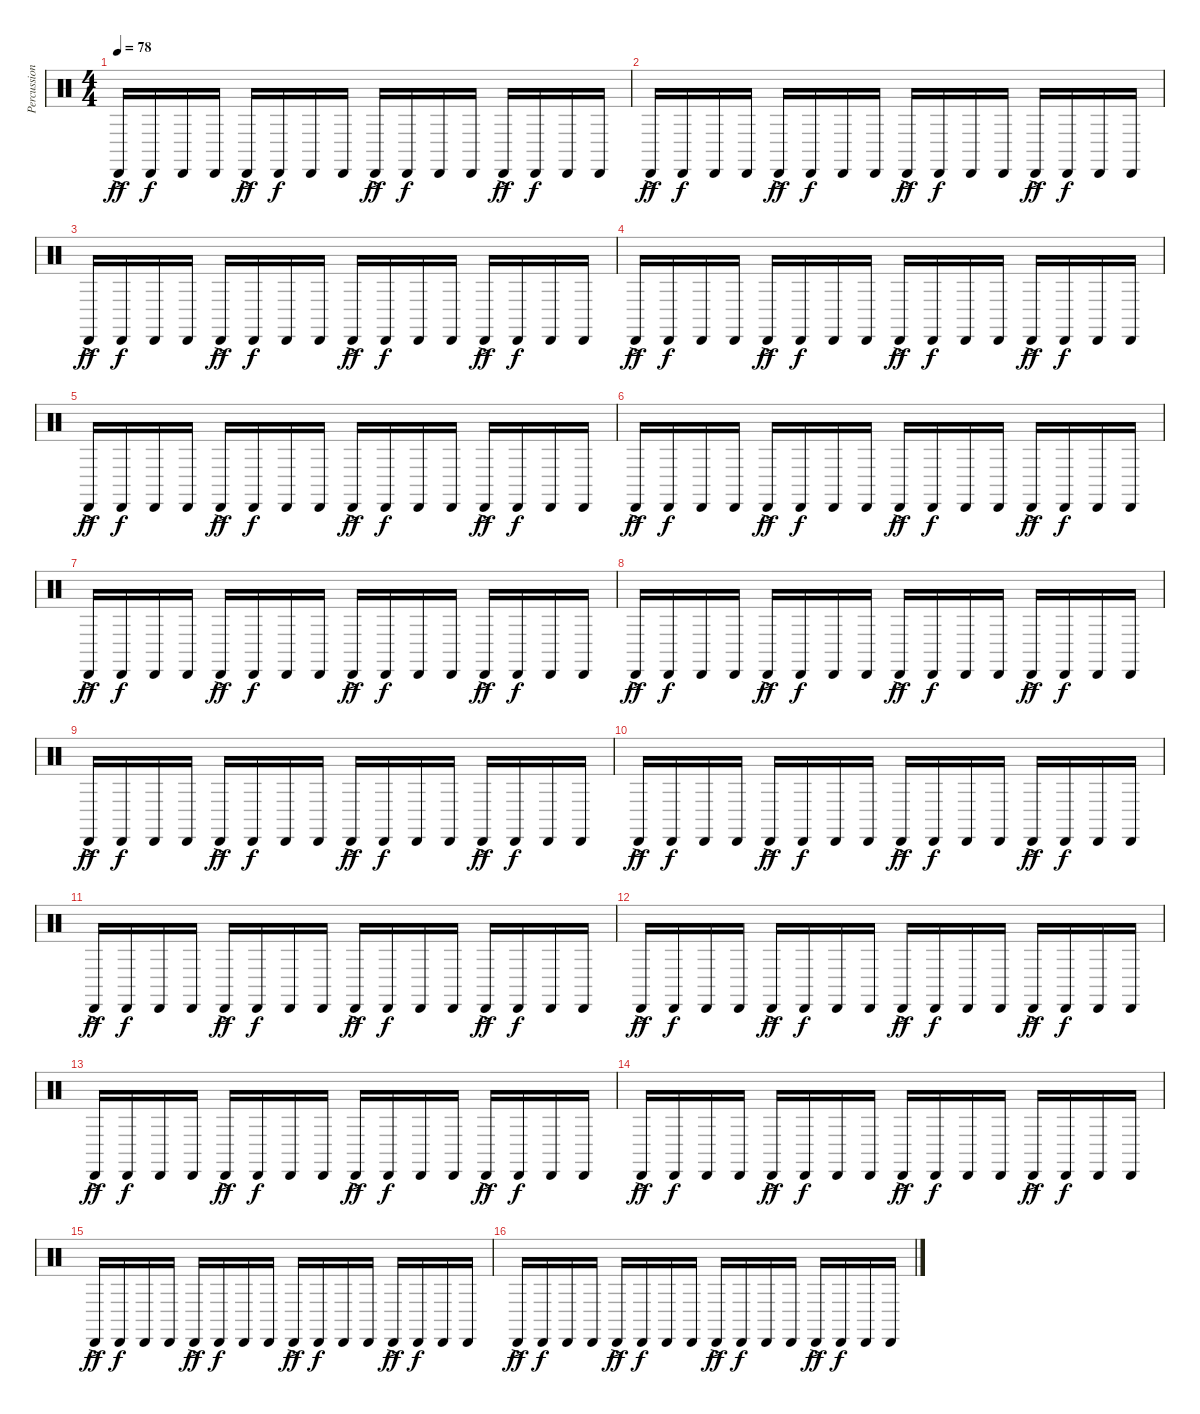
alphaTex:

\track ("Percussion" "Percussion") {instrument percussion}
\staff {score}
\articulation defaults
\ts (4 4)
\tempo 78
\clef neutral
\ks c "Cabasa (hit)"{ac}.16{dy ff} "Cabasa (hit)".16{dy f} "Cabasa (hit)".16 "Cabasa (hit)".16 "Cabasa (hit)"{ac}.16{dy ff} "Cabasa (hit)".16{dy f} "Cabasa (hit)".16 "Cabasa (hit)".16 "Cabasa (hit)"{ac}.16{dy ff} "Cabasa (hit)".16{dy f} "Cabasa (hit)".16 "Cabasa (hit)".16 "Cabasa (hit)"{ac}.16{dy ff} "Cabasa (hit)".16{dy f} "Cabasa (hit)".16 "Cabasa (hit)".16
|
"Cabasa (hit)"{ac}.16{dy ff} "Cabasa (hit)".16{dy f} "Cabasa (hit)".16 "Cabasa (hit)".16 "Cabasa (hit)"{ac}.16{dy ff} "Cabasa (hit)".16{dy f} "Cabasa (hit)".16 "Cabasa (hit)".16 "Cabasa (hit)"{ac}.16{dy ff} "Cabasa (hit)".16{dy f} "Cabasa (hit)".16 "Cabasa (hit)".16 "Cabasa (hit)"{ac}.16{dy ff} "Cabasa (hit)".16{dy f} "Cabasa (hit)".16 "Cabasa (hit)".16 |
"Cabasa (hit)"{ac}.16{dy ff} "Cabasa (hit)".16{dy f} "Cabasa (hit)".16 "Cabasa (hit)".16 "Cabasa (hit)"{ac}.16{dy ff} "Cabasa (hit)".16{dy f} "Cabasa (hit)".16 "Cabasa (hit)".16 "Cabasa (hit)"{ac}.16{dy ff} "Cabasa (hit)".16{dy f} "Cabasa (hit)".16 "Cabasa (hit)".16 "Cabasa (hit)"{ac}.16{dy ff} "Cabasa (hit)".16{dy f} "Cabasa (hit)".16 "Cabasa (hit)".16 |
"Cabasa (hit)"{ac}.16{dy ff} "Cabasa (hit)".16{dy f} "Cabasa (hit)".16 "Cabasa (hit)".16 "Cabasa (hit)"{ac}.16{dy ff} "Cabasa (hit)".16{dy f} "Cabasa (hit)".16 "Cabasa (hit)".16 "Cabasa (hit)"{ac}.16{dy ff} "Cabasa (hit)".16{dy f} "Cabasa (hit)".16 "Cabasa (hit)".16 "Cabasa (hit)"{ac}.16{dy ff} "Cabasa (hit)".16{dy f} "Cabasa (hit)".16 "Cabasa (hit)".16 |
"Cabasa (hit)"{ac}.16{dy ff} "Cabasa (hit)".16{dy f} "Cabasa (hit)".16 "Cabasa (hit)".16 "Cabasa (hit)"{ac}.16{dy ff} "Cabasa (hit)".16{dy f} "Cabasa (hit)".16 "Cabasa (hit)".16 "Cabasa (hit)"{ac}.16{dy ff} "Cabasa (hit)".16{dy f} "Cabasa (hit)".16 "Cabasa (hit)".16 "Cabasa (hit)"{ac}.16{dy ff} "Cabasa (hit)".16{dy f} "Cabasa (hit)".16 "Cabasa (hit)".16 |
"Cabasa (hit)"{ac}.16{dy ff} "Cabasa (hit)".16{dy f} "Cabasa (hit)".16 "Cabasa (hit)".16 "Cabasa (hit)"{ac}.16{dy ff} "Cabasa (hit)".16{dy f} "Cabasa (hit)".16 "Cabasa (hit)".16 "Cabasa (hit)"{ac}.16{dy ff} "Cabasa (hit)".16{dy f} "Cabasa (hit)".16 "Cabasa (hit)".16 "Cabasa (hit)"{ac}.16{dy ff} "Cabasa (hit)".16{dy f} "Cabasa (hit)".16 "Cabasa (hit)".16 |
"Cabasa (hit)"{ac}.16{dy ff} "Cabasa (hit)".16{dy f} "Cabasa (hit)".16 "Cabasa (hit)".16 "Cabasa (hit)"{ac}.16{dy ff} "Cabasa (hit)".16{dy f} "Cabasa (hit)".16 "Cabasa (hit)".16 "Cabasa (hit)"{ac}.16{dy ff} "Cabasa (hit)".16{dy f} "Cabasa (hit)".16 "Cabasa (hit)".16 "Cabasa (hit)"{ac}.16{dy ff} "Cabasa (hit)".16{dy f} "Cabasa (hit)".16 "Cabasa (hit)".16 |
"Cabasa (hit)"{ac}.16{dy ff} "Cabasa (hit)".16{dy f} "Cabasa (hit)".16 "Cabasa (hit)".16 "Cabasa (hit)"{ac}.16{dy ff} "Cabasa (hit)".16{dy f} "Cabasa (hit)".16 "Cabasa (hit)".16 "Cabasa (hit)"{ac}.16{dy ff} "Cabasa (hit)".16{dy f} "Cabasa (hit)".16 "Cabasa (hit)".16 "Cabasa (hit)"{ac}.16{dy ff} "Cabasa (hit)".16{dy f} "Cabasa (hit)".16 "Cabasa (hit)".16 |
"Cabasa (hit)"{ac}.16{dy ff} "Cabasa (hit)".16{dy f} "Cabasa (hit)".16 "Cabasa (hit)".16 "Cabasa (hit)"{ac}.16{dy ff} "Cabasa (hit)".16{dy f} "Cabasa (hit)".16 "Cabasa (hit)".16 "Cabasa (hit)"{ac}.16{dy ff} "Cabasa (hit)".16{dy f} "Cabasa (hit)".16 "Cabasa (hit)".16 "Cabasa (hit)"{ac}.16{dy ff} "Cabasa (hit)".16{dy f} "Cabasa (hit)".16 "Cabasa (hit)".16 |
"Cabasa (hit)"{ac}.16{dy ff} "Cabasa (hit)".16{dy f} "Cabasa (hit)".16 "Cabasa (hit)".16 "Cabasa (hit)"{ac}.16{dy ff} "Cabasa (hit)".16{dy f} "Cabasa (hit)".16 "Cabasa (hit)".16 "Cabasa (hit)"{ac}.16{dy ff} "Cabasa (hit)".16{dy f} "Cabasa (hit)".16 "Cabasa (hit)".16 "Cabasa (hit)"{ac}.16{dy ff} "Cabasa (hit)".16{dy f} "Cabasa (hit)".16 "Cabasa (hit)".16 |
"Cabasa (hit)"{ac}.16{dy ff} "Cabasa (hit)".16{dy f} "Cabasa (hit)".16 "Cabasa (hit)".16 "Cabasa (hit)"{ac}.16{dy ff} "Cabasa (hit)".16{dy f} "Cabasa (hit)".16 "Cabasa (hit)".16 "Cabasa (hit)"{ac}.16{dy ff} "Cabasa (hit)".16{dy f} "Cabasa (hit)".16 "Cabasa (hit)".16 "Cabasa (hit)"{ac}.16{dy ff} "Cabasa (hit)".16{dy f} "Cabasa (hit)".16 "Cabasa (hit)".16 |
"Cabasa (hit)"{ac}.16{dy ff} "Cabasa (hit)".16{dy f} "Cabasa (hit)".16 "Cabasa (hit)".16 "Cabasa (hit)"{ac}.16{dy ff} "Cabasa (hit)".16{dy f} "Cabasa (hit)".16 "Cabasa (hit)".16 "Cabasa (hit)"{ac}.16{dy ff} "Cabasa (hit)".16{dy f} "Cabasa (hit)".16 "Cabasa (hit)".16 "Cabasa (hit)"{ac}.16{dy ff} "Cabasa (hit)".16{dy f} "Cabasa (hit)".16 "Cabasa (hit)".16 |
"Cabasa (hit)"{ac}.16{dy ff} "Cabasa (hit)".16{dy f} "Cabasa (hit)".16 "Cabasa (hit)".16 "Cabasa (hit)"{ac}.16{dy ff} "Cabasa (hit)".16{dy f} "Cabasa (hit)".16 "Cabasa (hit)".16 "Cabasa (hit)"{ac}.16{dy ff} "Cabasa (hit)".16{dy f} "Cabasa (hit)".16 "Cabasa (hit)".16 "Cabasa (hit)"{ac}.16{dy ff} "Cabasa (hit)".16{dy f} "Cabasa (hit)".16 "Cabasa (hit)".16 |
"Cabasa (hit)"{ac}.16{dy ff} "Cabasa (hit)".16{dy f} "Cabasa (hit)".16 "Cabasa (hit)".16 "Cabasa (hit)"{ac}.16{dy ff} "Cabasa (hit)".16{dy f} "Cabasa (hit)".16 "Cabasa (hit)".16 "Cabasa (hit)"{ac}.16{dy ff} "Cabasa (hit)".16{dy f} "Cabasa (hit)".16 "Cabasa (hit)".16 "Cabasa (hit)"{ac}.16{dy ff} "Cabasa (hit)".16{dy f} "Cabasa (hit)".16 "Cabasa (hit)".16 |
"Cabasa (hit)"{ac}.16{dy ff} "Cabasa (hit)".16{dy f} "Cabasa (hit)".16 "Cabasa (hit)".16 "Cabasa (hit)"{ac}.16{dy ff} "Cabasa (hit)".16{dy f} "Cabasa (hit)".16 "Cabasa (hit)".16 "Cabasa (hit)"{ac}.16{dy ff} "Cabasa (hit)".16{dy f} "Cabasa (hit)".16 "Cabasa (hit)".16 "Cabasa (hit)"{ac}.16{dy ff} "Cabasa (hit)".16{dy f} "Cabasa (hit)".16 "Cabasa (hit)".16 |
"Cabasa (hit)"{ac}.16{dy ff} "Cabasa (hit)".16{dy f} "Cabasa (hit)".16 "Cabasa (hit)".16 "Cabasa (hit)"{ac}.16{dy ff} "Cabasa (hit)".16{dy f} "Cabasa (hit)".16 "Cabasa (hit)".16 "Cabasa (hit)"{ac}.16{dy ff} "Cabasa (hit)".16{dy f} "Cabasa (hit)".16 "Cabasa (hit)".16 "Cabasa (hit)"{ac}.16{dy ff} "Cabasa (hit)".16{dy f} "Cabasa (hit)".16 "Cabasa (hit)".16
